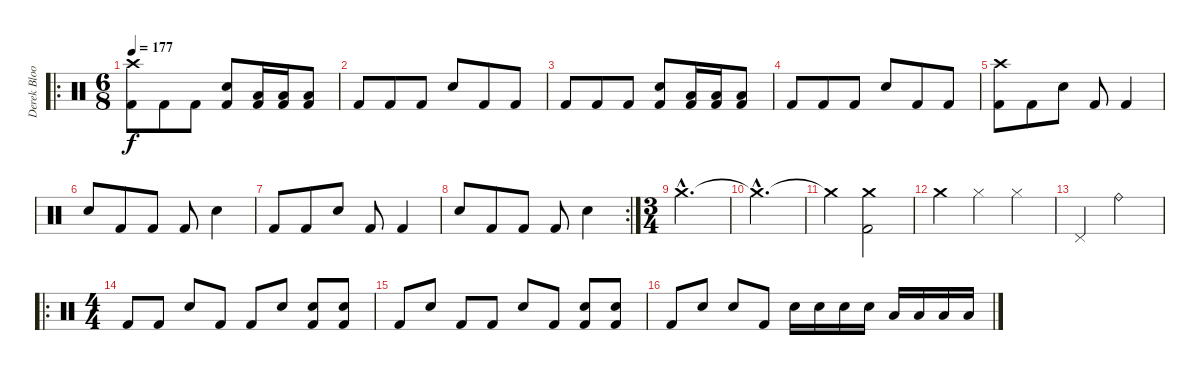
\track ("Derek Bloom" "Derek Bloo") {instrument percussion}
\staff {score}
\articulation defaults
\ro
\ts (6 8)
\tempo 177
\clef neutral
\ks c
("Crash high (hit)" "Kick (hit) 2").8{dy f} "Kick (hit) 2".8 "Kick (hit) 2".8 ("Electric Snare (hit)" "Kick (hit) 2").8 ("Low Floor Tom (hit)" "Kick (hit) 2").16 ("Low Floor Tom (hit)" "Kick (hit) 2").16 ("Low Floor Tom (hit)" "Kick (hit) 2").8 |
"Kick (hit) 2".8 "Kick (hit) 2".8 "Kick (hit) 2".8 "Electric Snare (hit)".8 "Kick (hit) 2".8 "Kick (hit) 2".8 |
"Kick (hit) 2".8 "Kick (hit) 2".8 "Kick (hit) 2".8 ("Electric Snare (hit)" "Kick (hit) 2").8 ("Low Floor Tom (hit)" "Kick (hit) 2").16 ("Low Floor Tom (hit)" "Kick (hit) 2").16 ("Low Floor Tom (hit)" "Kick (hit) 2").8 |
"Kick (hit) 2".8 "Kick (hit) 2".8 "Kick (hit) 2".8 "Electric Snare (hit)".8 "Kick (hit) 2".8 "Kick (hit) 2".8 |
("Crash high (hit)" "Kick (hit) 2").8 "Kick (hit) 2".8 "Electric Snare (hit)".8 "Kick (hit) 2".8 "Kick (hit) 2".4 |
"Electric Snare (hit)".8 "Kick (hit) 2".8 "Kick (hit) 2".8 "Kick (hit) 2".8 "Electric Snare (hit)".4 |
"Kick (hit) 2".8 "Kick (hit) 2".8 "Electric Snare (hit)".8 "Kick (hit) 2".8 "Kick (hit) 2".4 |
\rc 2 "Electric Snare (hit)".8 "Kick (hit) 2".8 "Kick (hit) 2".8 "Kick (hit) 2".8 "Electric Snare (hit)".4
|
\ts (3 4)
"Crash medium (hit)"{hac}.2{d} |
"Crash medium (hit)"{hac t}.2{d} |
"Crash medium (hit)"{t}.4 ("Crash medium (hit)" "Kick (hit) 2").2 |
"Crash medium (hit)".4 "Hi-Hat (closed)".4 "Hi-Hat (closed)".4 |
"Pedal Hi-Hat (hit)".4 "Ride (bell)".2 |
\ro
\ts (4 4)
"Kick (hit) 2".8 "Kick (hit) 2".8 "Electric Snare (hit)".8 "Kick (hit) 2".8 "Kick (hit) 2".8 "Electric Snare (hit)".8 ("Electric Snare (hit)" "Kick (hit) 2").8 ("Electric Snare (hit)" "Kick (hit) 2").8 |
"Kick (hit) 2".8 "Electric Snare (hit)".8 "Kick (hit) 2".8 "Kick (hit) 2".8 "Electric Snare (hit)".8 "Kick (hit) 2".8 ("Electric Snare (hit)" "Kick (hit) 2").8 ("Electric Snare (hit)" "Kick (hit) 2").8 |
"Kick (hit) 2".8 "Electric Snare (hit)".8 "Electric Snare (hit)".8 "Kick (hit) 2".8 "Electric Snare (hit)".16 "Electric Snare (hit)".16 "Electric Snare (hit)".16 "Electric Snare (hit)".16 "Low Tom (hit)".16 "Low Tom (hit)".16 "Low Tom (hit)".16 "Low Tom (hit)".16
